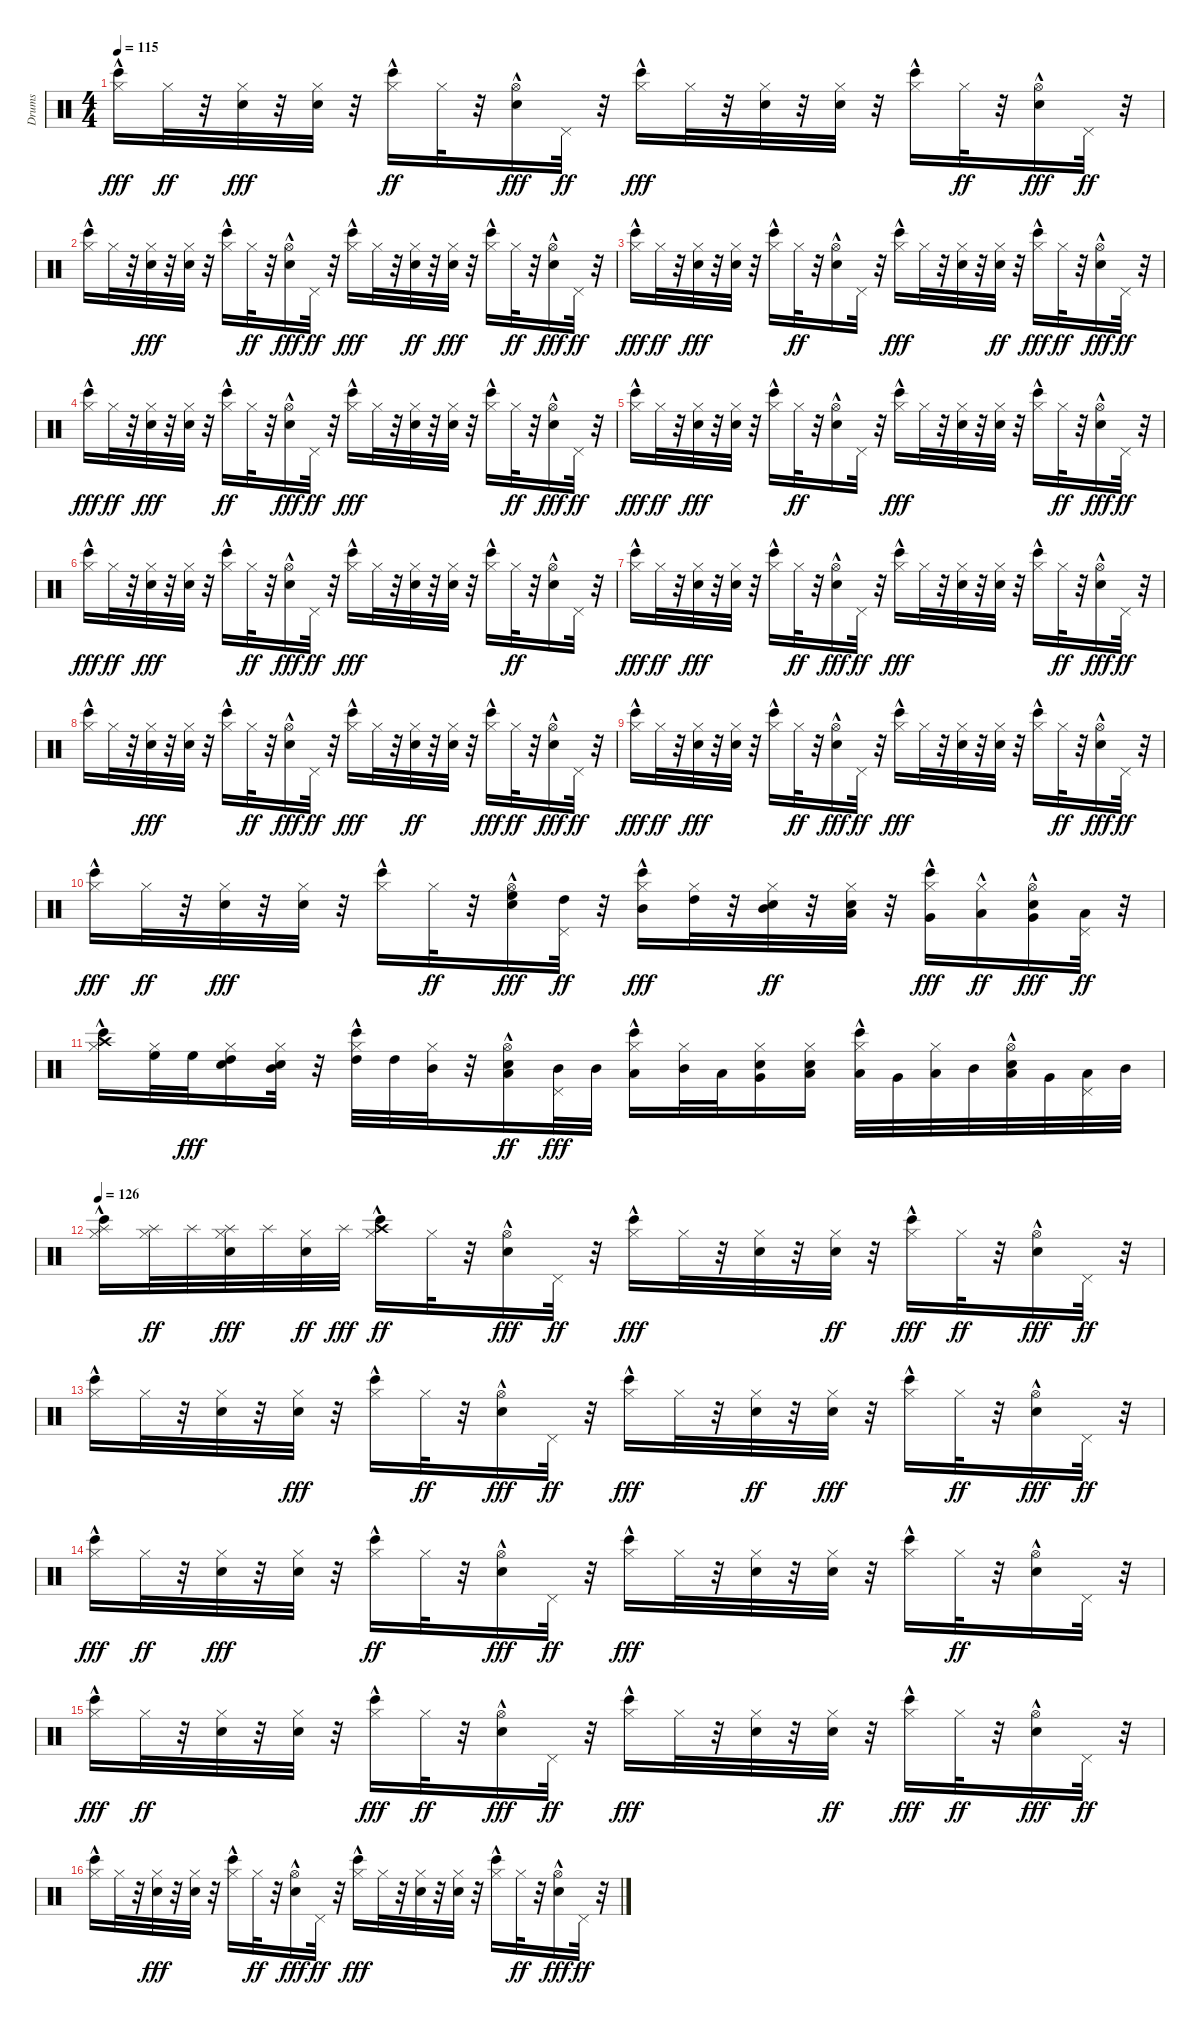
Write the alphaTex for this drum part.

\track ("Drums" "Drums") {instrument percussion}
\staff {score}
\articulation defaults
\ts (4 4)
\tempo 115
\clef neutral
\ks c
("Hi-Hat (closed)" "Bongo High (hit)"{hac}).16{dy fff} "Hi-Hat (closed)".32{dy ff} r.32 ("Hi-Hat (closed)" "Electric Snare (hit)").32{dy fff} r.32 ("Hi-Hat (closed)" "Electric Snare (hit)").32 r.32 ("Bongo High (hit)"{hac} "Hi-Hat (closed)").16{dy ff} "Hi-Hat (closed)".32 r.32 ("Hi-Hat (open)" "Electric Snare (hit)"{hac}).16{dy fff} "Pedal Hi-Hat (hit)".32{dy ff} r.32 ("Hi-Hat (closed)" "Bongo High (hit)"{hac}).16{dy fff} "Hi-Hat (closed)".32 r.32 ("Hi-Hat (closed)" "Electric Snare (hit)").32 r.32 ("Hi-Hat (closed)" "Electric Snare (hit)").32 r.32 ("Hi-Hat (closed)" "Bongo High (hit)"{hac}).16 "Hi-Hat (closed)".32{dy ff} r.32 ("Hi-Hat (open)" "Electric Snare (hit)"{hac}).16{dy fff} "Pedal Hi-Hat (hit)".32{dy ff} r.32 |
("Bongo High (hit)"{hac} "Hi-Hat (closed)").16 "Hi-Hat (closed)".32 r.32 ("Hi-Hat (closed)" "Electric Snare (hit)").32{dy fff} r.32 ("Hi-Hat (closed)" "Electric Snare (hit)").32 r.32 ("Hi-Hat (closed)" "Bongo High (hit)"{hac}).16 "Hi-Hat (closed)".32{dy ff} r.32 ("Hi-Hat (open)" "Electric Snare (hit)"{hac}).16{dy fff} "Pedal Hi-Hat (hit)".32{dy ff} r.32 ("Hi-Hat (closed)" "Bongo High (hit)"{hac}).16{dy fff} "Hi-Hat (closed)".32 r.32 ("Electric Snare (hit)" "Hi-Hat (closed)").32{dy ff} r.32 ("Hi-Hat (closed)" "Electric Snare (hit)").32{dy fff} r.32 ("Hi-Hat (closed)" "Bongo High (hit)"{hac}).16 "Hi-Hat (closed)".32{dy ff} r.32 ("Hi-Hat (open)" "Electric Snare (hit)"{hac}).16{dy fff} "Pedal Hi-Hat (hit)".32{dy ff} r.32 |
("Hi-Hat (closed)" "Bongo High (hit)"{hac}).16{dy fff} "Hi-Hat (closed)".32{dy ff} r.32 ("Hi-Hat (closed)" "Electric Snare (hit)").32{dy fff} r.32 ("Hi-Hat (closed)" "Electric Snare (hit)").32 r.32 ("Hi-Hat (closed)" "Bongo High (hit)"{hac}).16 "Hi-Hat (closed)".32{dy ff} r.32 ("Electric Snare (hit)"{hac} "Hi-Hat (open)").16 "Pedal Hi-Hat (hit)".32 r.32 ("Hi-Hat (closed)" "Bongo High (hit)"{hac}).16{dy fff} "Hi-Hat (closed)".32 r.32 ("Hi-Hat (closed)" "Electric Snare (hit)").32 r.32 ("Electric Snare (hit)" "Hi-Hat (closed)").32{dy ff} r.32 ("Hi-Hat (closed)" "Bongo High (hit)"{hac}).16{dy fff} "Hi-Hat (closed)".32{dy ff} r.32 ("Hi-Hat (open)" "Electric Snare (hit)"{hac}).16{dy fff} "Pedal Hi-Hat (hit)".32{dy ff} r.32 |
("Hi-Hat (closed)" "Bongo High (hit)"{hac}).16{dy fff} "Hi-Hat (closed)".32{dy ff} r.32 ("Hi-Hat (closed)" "Electric Snare (hit)").32{dy fff} r.32 ("Hi-Hat (closed)" "Electric Snare (hit)").32 r.32 ("Bongo High (hit)"{hac} "Hi-Hat (closed)").16{dy ff} "Hi-Hat (closed)".32 r.32 ("Hi-Hat (open)" "Electric Snare (hit)"{hac}).16{dy fff} "Pedal Hi-Hat (hit)".32{dy ff} r.32 ("Hi-Hat (closed)" "Bongo High (hit)"{hac}).16{dy fff} "Hi-Hat (closed)".32 r.32 ("Hi-Hat (closed)" "Electric Snare (hit)").32 r.32 ("Hi-Hat (closed)" "Electric Snare (hit)").32 r.32 ("Bongo High (hit)"{hac} "Hi-Hat (closed)").16 "Hi-Hat (closed)".32{dy ff} r.32 ("Hi-Hat (open)" "Electric Snare (hit)"{hac}).16{dy fff} "Pedal Hi-Hat (hit)".32{dy ff} r.32 |
("Hi-Hat (closed)" "Bongo High (hit)"{hac}).16{dy fff} "Hi-Hat (closed)".32{dy ff} r.32 ("Hi-Hat (closed)" "Electric Snare (hit)").32{dy fff} r.32 ("Hi-Hat (closed)" "Electric Snare (hit)").32 r.32 ("Hi-Hat (closed)" "Bongo High (hit)"{hac}).16 "Hi-Hat (closed)".32{dy ff} r.32 ("Electric Snare (hit)"{hac} "Hi-Hat (open)").16 "Pedal Hi-Hat (hit)".32 r.32 ("Hi-Hat (closed)" "Bongo High (hit)"{hac}).16{dy fff} "Hi-Hat (closed)".32 r.32 ("Hi-Hat (closed)" "Electric Snare (hit)").32 r.32 ("Hi-Hat (closed)" "Electric Snare (hit)").32 r.32 ("Hi-Hat (closed)" "Bongo High (hit)"{hac}).16 "Hi-Hat (closed)".32{dy ff} r.32 ("Hi-Hat (open)" "Electric Snare (hit)"{hac}).16{dy fff} "Pedal Hi-Hat (hit)".32{dy ff} r.32 |
("Hi-Hat (closed)" "Bongo High (hit)"{hac}).16{dy fff} "Hi-Hat (closed)".32{dy ff} r.32 ("Hi-Hat (closed)" "Electric Snare (hit)").32{dy fff} r.32 ("Hi-Hat (closed)" "Electric Snare (hit)").32 r.32 ("Hi-Hat (closed)" "Bongo High (hit)"{hac}).16 "Hi-Hat (closed)".32{dy ff} r.32 ("Hi-Hat (open)" "Electric Snare (hit)"{hac}).16{dy fff} "Pedal Hi-Hat (hit)".32{dy ff} r.32 ("Hi-Hat (closed)" "Bongo High (hit)"{hac}).16{dy fff} "Hi-Hat (closed)".32 r.32 ("Hi-Hat (closed)" "Electric Snare (hit)").32 r.32 ("Hi-Hat (closed)" "Electric Snare (hit)").32 r.32 ("Hi-Hat (closed)" "Bongo High (hit)"{hac}).16 "Hi-Hat (closed)".32{dy ff} r.32 ("Electric Snare (hit)"{hac} "Hi-Hat (open)").16 "Pedal Hi-Hat (hit)".32 r.32 |
("Hi-Hat (closed)" "Bongo High (hit)"{hac}).16{dy fff} "Hi-Hat (closed)".32{dy ff} r.32 ("Hi-Hat (closed)" "Electric Snare (hit)").32{dy fff} r.32 ("Hi-Hat (closed)" "Electric Snare (hit)").32 r.32 ("Hi-Hat (closed)" "Bongo High (hit)"{hac}).16 "Hi-Hat (closed)".32{dy ff} r.32 ("Hi-Hat (open)" "Electric Snare (hit)"{hac}).16{dy fff} "Pedal Hi-Hat (hit)".32{dy ff} r.32 ("Hi-Hat (closed)" "Bongo High (hit)"{hac}).16{dy fff} "Hi-Hat (closed)".32 r.32 ("Hi-Hat (closed)" "Electric Snare (hit)").32 r.32 ("Hi-Hat (closed)" "Electric Snare (hit)").32 r.32 ("Hi-Hat (closed)" "Bongo High (hit)"{hac}).16 "Hi-Hat (closed)".32{dy ff} r.32 ("Hi-Hat (open)" "Electric Snare (hit)"{hac}).16{dy fff} "Pedal Hi-Hat (hit)".32{dy ff} r.32 |
("Bongo High (hit)"{hac} "Hi-Hat (closed)").16 "Hi-Hat (closed)".32 r.32 ("Hi-Hat (closed)" "Electric Snare (hit)").32{dy fff} r.32 ("Hi-Hat (closed)" "Electric Snare (hit)").32 r.32 ("Hi-Hat (closed)" "Bongo High (hit)"{hac}).16 "Hi-Hat (closed)".32{dy ff} r.32 ("Hi-Hat (open)" "Electric Snare (hit)"{hac}).16{dy fff} "Pedal Hi-Hat (hit)".32{dy ff} r.32 ("Hi-Hat (closed)" "Bongo High (hit)"{hac}).16{dy fff} "Hi-Hat (closed)".32 r.32 ("Electric Snare (hit)" "Hi-Hat (closed)").32{dy ff} r.32 ("Electric Snare (hit)" "Hi-Hat (closed)").32 r.32 ("Hi-Hat (closed)" "Bongo High (hit)"{hac}).16{dy fff} "Hi-Hat (closed)".32{dy ff} r.32 ("Hi-Hat (open)" "Electric Snare (hit)"{hac}).16{dy fff} "Pedal Hi-Hat (hit)".32{dy ff} r.32 |
("Hi-Hat (closed)" "Bongo High (hit)"{hac}).16{dy fff} "Hi-Hat (closed)".32{dy ff} r.32 ("Hi-Hat (closed)" "Electric Snare (hit)").32{dy fff} r.32 ("Hi-Hat (closed)" "Electric Snare (hit)").32 r.32 ("Hi-Hat (closed)" "Bongo High (hit)"{hac}).16 "Hi-Hat (closed)".32{dy ff} r.32 ("Hi-Hat (open)" "Electric Snare (hit)"{hac}).16{dy fff} "Pedal Hi-Hat (hit)".32{dy ff} r.32 ("Hi-Hat (closed)" "Bongo High (hit)"{hac}).16{dy fff} "Hi-Hat (closed)".32 r.32 ("Hi-Hat (closed)" "Electric Snare (hit)").32 r.32 ("Hi-Hat (closed)" "Electric Snare (hit)").32 r.32 ("Hi-Hat (closed)" "Bongo High (hit)"{hac}).16 "Hi-Hat (closed)".32{dy ff} r.32 ("Hi-Hat (open)" "Electric Snare (hit)"{hac}).16{dy fff} "Pedal Hi-Hat (hit)".32{dy ff} r.32 |
("Hi-Hat (closed)" "Bongo High (hit)"{hac}).16{dy fff} "Hi-Hat (closed)".32{dy ff} r.32 ("Hi-Hat (closed)" "Electric Snare (hit)").32{dy fff} r.32 ("Hi-Hat (closed)" "Electric Snare (hit)").32 r.32 ("Hi-Hat (closed)" "Bongo High (hit)"{hac}).16 "Hi-Hat (closed)".32{dy ff} r.32 ("High Floor Tom (hit)" "Hi-Hat (open)" "Electric Snare (hit)"{hac}).16{dy fff} ("High Tom (hit)" "Pedal Hi-Hat (hit)").32{dy ff} r.32 ("Hi-Hat (closed)" "Bongo High (hit)"{hac} "Mid Tom (hit)").16{dy fff} ("Hi-Hat (closed)" "High Tom (hit)").32 r.32 ("Hi-Hat (closed)" "Electric Snare (hit)" "Mid Tom (hit)").32{dy ff} r.32 ("Hi-Hat (closed)" "Electric Snare (hit)" "Low Tom (hit)").32 r.32 ("Bongo High (hit)"{hac} "Very Low Tom (hit)" "Hi-Hat (closed)").16{dy fff} ("Hi-Hat (closed)" "Low Floor Tom (hit)"{hac}).16{dy ff} ("Very Low Tom (hit)" "Hi-Hat (open)" "Electric Snare (hit)"{hac}).16{dy fff} ("Pedal Hi-Hat (hit)" "Low Tom (hit)").32{dy ff} r.32 |
("Hi-Hat (closed)" "Bongo High (hit)"{hac} "Crash high (hit)").16 ("High Floor Tom (hit)" "Hi-Hat (closed)").32 "High Floor Tom (hit)".32{dy fff} ("Hi-Hat (closed)" "Electric Snare (hit)" "High Tom (hit)").16 ("Hi-Hat (closed)" "Electric Snare (hit)" "Mid Tom (hit)").32 r.32 ("Hi-Hat (closed)" "Bongo High (hit)"{hac} "High Tom (hit)").32 "High Tom (hit)".32 ("Hi-Hat (closed)" "Mid Tom (hit)").32 r.32 ("Electric Snare (hit)"{hac} "Low Tom (hit)" "Hi-Hat (open)").16{dy ff} ("Pedal Hi-Hat (hit)" "Mid Tom (hit)").32{dy fff} "Mid Tom (hit)".32 ("Hi-Hat (closed)" "Bongo High (hit)"{hac} "Low Tom (hit)").16 ("Mid Tom (hit)" "Hi-Hat (closed)").32 "Low Tom (hit)".32 ("Hi-Hat (closed)" "Electric Snare (hit)" "Very Low Tom (hit)").16 ("Hi-Hat (closed)" "Electric Snare (hit)" "Low Tom (hit)").16 ("Hi-Hat (closed)" "Bongo High (hit)"{hac} "Low Floor Tom (hit)").32 "Very Low Tom (hit)".32 ("Hi-Hat (closed)" "Low Tom (hit)").32 "Mid Tom (hit)".32 ("Hi-Hat (open)" "Electric Snare (hit)"{hac} "Low Floor Tom (hit)").32 "Very Low Tom (hit)".32 ("Pedal Hi-Hat (hit)" "Low Tom (hit)").32 "Mid Tom (hit)".32 |
\tempo 126
("Splash (hit)" "Hi-Hat (closed)" "Bongo High (hit)"{hac}).16 ("Splash (hit)" "Hi-Hat (closed)").32{dy ff} "Splash (hit)".32 ("Splash (hit)" "Hi-Hat (closed)" "Electric Snare (hit)").32{dy fff} "Splash (hit)".32 ("Electric Snare (hit)" "Hi-Hat (closed)").32{dy ff} "Splash (hit)".32{dy fff} ("Hi-Hat (closed)" "Bongo High (hit)"{hac} "Crash high (hit)").16{dy ff} "Hi-Hat (closed)".32 r.32 ("Hi-Hat (open)" "Electric Snare (hit)"{hac}).16{dy fff} "Pedal Hi-Hat (hit)".32{dy ff} r.32 ("Hi-Hat (closed)" "Bongo High (hit)"{hac}).16{dy fff} "Hi-Hat (closed)".32 r.32 ("Hi-Hat (closed)" "Electric Snare (hit)").32 r.32 ("Electric Snare (hit)" "Hi-Hat (closed)").32{dy ff} r.32 ("Hi-Hat (closed)" "Bongo High (hit)"{hac}).16{dy fff} "Hi-Hat (closed)".32{dy ff} r.32 ("Hi-Hat (open)" "Electric Snare (hit)"{hac}).16{dy fff} "Pedal Hi-Hat (hit)".32{dy ff} r.32 |
("Bongo High (hit)"{hac} "Hi-Hat (closed)").16 "Hi-Hat (closed)".32 r.32 ("Electric Snare (hit)" "Hi-Hat (closed)").32 r.32 ("Hi-Hat (closed)" "Electric Snare (hit)").32{dy fff} r.32 ("Hi-Hat (closed)" "Bongo High (hit)"{hac}).16 "Hi-Hat (closed)".32{dy ff} r.32 ("Hi-Hat (open)" "Electric Snare (hit)"{hac}).16{dy fff} "Pedal Hi-Hat (hit)".32{dy ff} r.32 ("Hi-Hat (closed)" "Bongo High (hit)"{hac}).16{dy fff} "Hi-Hat (closed)".32 r.32 ("Electric Snare (hit)" "Hi-Hat (closed)").32{dy ff} r.32 ("Hi-Hat (closed)" "Electric Snare (hit)").32{dy fff} r.32 ("Hi-Hat (closed)" "Bongo High (hit)"{hac}).16 "Hi-Hat (closed)".32{dy ff} r.32 ("Hi-Hat (open)" "Electric Snare (hit)"{hac}).16{dy fff} "Pedal Hi-Hat (hit)".32{dy ff} r.32 |
("Hi-Hat (closed)" "Bongo High (hit)"{hac}).16{dy fff} "Hi-Hat (closed)".32{dy ff} r.32 ("Hi-Hat (closed)" "Electric Snare (hit)").32{dy fff} r.32 ("Hi-Hat (closed)" "Electric Snare (hit)").32 r.32 ("Bongo High (hit)"{hac} "Hi-Hat (closed)").16{dy ff} "Hi-Hat (closed)".32 r.32 ("Hi-Hat (open)" "Electric Snare (hit)"{hac}).16{dy fff} "Pedal Hi-Hat (hit)".32{dy ff} r.32 ("Hi-Hat (closed)" "Bongo High (hit)"{hac}).16{dy fff} "Hi-Hat (closed)".32 r.32 ("Hi-Hat (closed)" "Electric Snare (hit)").32 r.32 ("Hi-Hat (closed)" "Electric Snare (hit)").32 r.32 ("Hi-Hat (closed)" "Bongo High (hit)"{hac}).16 "Hi-Hat (closed)".32{dy ff} r.32 ("Electric Snare (hit)"{hac} "Hi-Hat (open)").16 "Pedal Hi-Hat (hit)".32 r.32 |
("Hi-Hat (closed)" "Bongo High (hit)"{hac}).16{dy fff} "Hi-Hat (closed)".32{dy ff} r.32 ("Electric Snare (hit)" "Hi-Hat (closed)").32 r.32 ("Electric Snare (hit)" "Hi-Hat (closed)").32 r.32 ("Hi-Hat (closed)" "Bongo High (hit)"{hac}).16{dy fff} "Hi-Hat (closed)".32{dy ff} r.32 ("Hi-Hat (open)" "Electric Snare (hit)"{hac}).16{dy fff} "Pedal Hi-Hat (hit)".32{dy ff} r.32 ("Hi-Hat (closed)" "Bongo High (hit)"{hac}).16{dy fff} "Hi-Hat (closed)".32 r.32 ("Hi-Hat (closed)" "Electric Snare (hit)").32 r.32 ("Electric Snare (hit)" "Hi-Hat (closed)").32{dy ff} r.32 ("Hi-Hat (closed)" "Bongo High (hit)"{hac}).16{dy fff} "Hi-Hat (closed)".32{dy ff} r.32 ("Hi-Hat (open)" "Electric Snare (hit)"{hac}).16{dy fff} "Pedal Hi-Hat (hit)".32{dy ff} r.32 |
("Bongo High (hit)"{hac} "Hi-Hat (closed)").16 "Hi-Hat (closed)".32 r.32 ("Hi-Hat (closed)" "Electric Snare (hit)").32{dy fff} r.32 ("Hi-Hat (closed)" "Electric Snare (hit)").32 r.32 ("Hi-Hat (closed)" "Bongo High (hit)"{hac}).16 "Hi-Hat (closed)".32{dy ff} r.32 ("Hi-Hat (open)" "Electric Snare (hit)"{hac}).16{dy fff} "Pedal Hi-Hat (hit)".32{dy ff} r.32 ("Hi-Hat (closed)" "Bongo High (hit)"{hac}).16{dy fff} "Hi-Hat (closed)".32 r.32 ("Hi-Hat (closed)" "Electric Snare (hit)").32 r.32 ("Hi-Hat (closed)" "Electric Snare (hit)").32 r.32 ("Hi-Hat (closed)" "Bongo High (hit)"{hac}).16 "Hi-Hat (closed)".32{dy ff} r.32 ("Hi-Hat (open)" "Electric Snare (hit)"{hac}).16{dy fff} "Pedal Hi-Hat (hit)".32{dy ff} r.32
